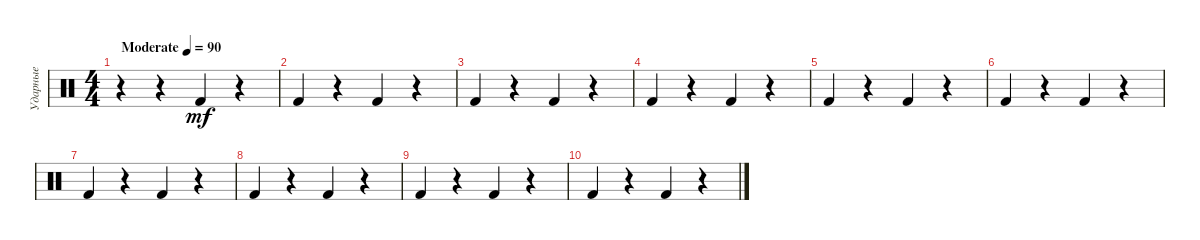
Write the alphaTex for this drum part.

\track ("Ударные" "Ударные") {instrument percussion}
\staff {score}
\articulation defaults
\ts (4 4)
\tempo (90 "Moderate")
\clef neutral
\ks c
r.4{dy mf} r.4 "Kick (hit) 2".4 r.4 |
"Kick (hit) 2".4 r.4 "Kick (hit) 2".4 r.4 |
"Kick (hit) 2".4 r.4 "Kick (hit) 2".4 r.4 |
"Kick (hit) 2".4 r.4 "Kick (hit) 2".4 r.4 |
"Kick (hit) 2".4 r.4 "Kick (hit) 2".4 r.4 |
"Kick (hit) 2".4 r.4 "Kick (hit) 2".4 r.4 |
"Kick (hit) 2".4 r.4 "Kick (hit) 2".4 r.4 |
"Kick (hit) 2".4 r.4 "Kick (hit) 2".4 r.4 |
"Kick (hit) 2".4 r.4 "Kick (hit) 2".4 r.4 |
"Kick (hit) 2".4 r.4 "Kick (hit) 2".4 r.4
